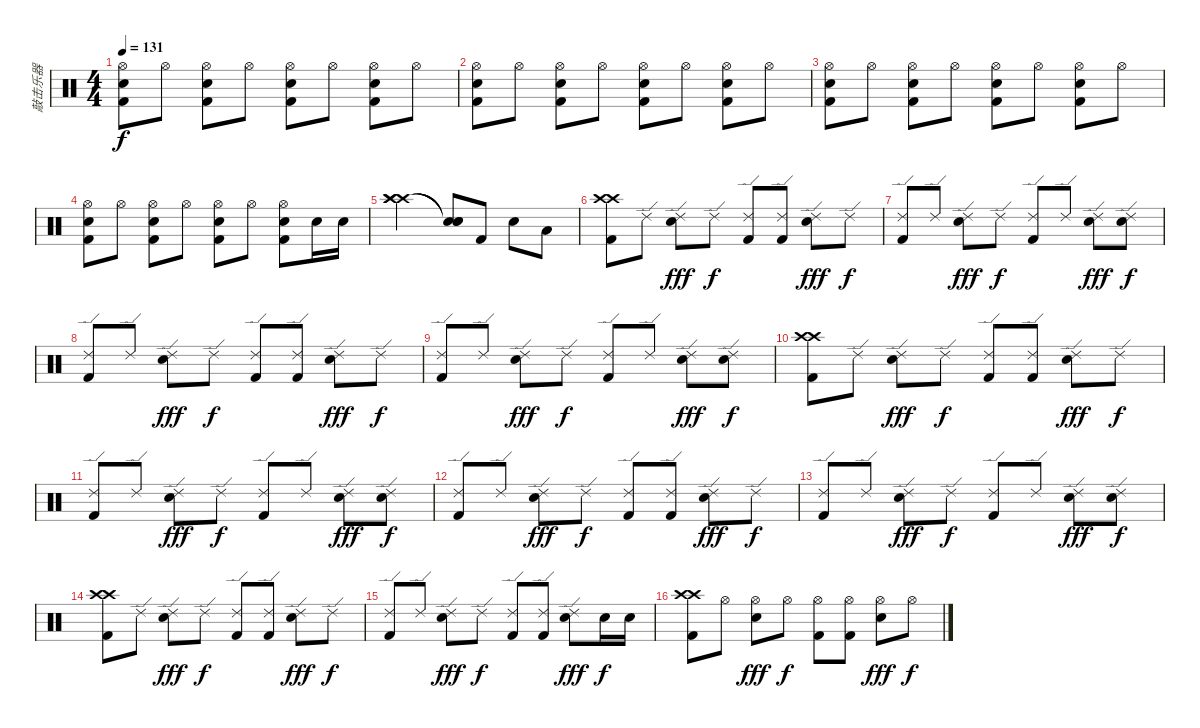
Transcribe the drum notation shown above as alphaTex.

\track ("敲击乐器" "敲击乐器") {instrument percussion}
\staff {score}
\articulation defaults
\ts (4 4)
\tempo 131
\clef neutral
\ks c
("Hi-Hat (open)" "Electric Snare (hit)" "Kick (hit) 2").8{dy f} "Hi-Hat (open)".8 ("Hi-Hat (open)" "Electric Snare (hit)" "Kick (hit) 2").8 "Hi-Hat (open)".8 ("Hi-Hat (open)" "Electric Snare (hit)" "Kick (hit) 2").8 "Hi-Hat (open)".8 ("Hi-Hat (open)" "Electric Snare (hit)" "Kick (hit) 2").8 "Hi-Hat (open)".8 |
("Hi-Hat (open)" "Electric Snare (hit)" "Kick (hit) 2").8 "Hi-Hat (open)".8 ("Hi-Hat (open)" "Electric Snare (hit)" "Kick (hit) 2").8 "Hi-Hat (open)".8 ("Hi-Hat (open)" "Electric Snare (hit)" "Kick (hit) 2").8 "Hi-Hat (open)".8 ("Hi-Hat (open)" "Electric Snare (hit)" "Kick (hit) 2").8 "Hi-Hat (open)".8 |
("Hi-Hat (open)" "Electric Snare (hit)" "Kick (hit) 2").8 "Hi-Hat (open)".8 ("Hi-Hat (open)" "Electric Snare (hit)" "Kick (hit) 2").8 "Hi-Hat (open)".8 ("Hi-Hat (open)" "Electric Snare (hit)" "Kick (hit) 2").8 "Hi-Hat (open)".8 ("Hi-Hat (open)" "Electric Snare (hit)" "Kick (hit) 2").8 "Hi-Hat (open)".8 |
("Hi-Hat (open)" "Electric Snare (hit)" "Kick (hit) 2").8 "Hi-Hat (open)".8 ("Hi-Hat (open)" "Electric Snare (hit)" "Kick (hit) 2").8 "Hi-Hat (open)".8 ("Hi-Hat (open)" "Electric Snare (hit)" "Kick (hit) 2").8 "Hi-Hat (open)".8 ("Hi-Hat (open)" "Electric Snare (hit)" "Kick (hit) 2").8 "Electric Snare (hit)".16 "Electric Snare (hit)".16 |
("Crash high (hit)" "Crash high (hit)" "Crash high (hit)").2 ("Snare (hit)"{t} "Snare (hit)"{t} "Snare (hit)"{t}).8 "Kick (hit) 2".8 "Electric Snare (hit)".8 "Low Tom (hit)".8 |
("Crash high (hit)" "Kick (hit) 2" "Crash high (hit)").8 "Ride (edge) 2".8 ("Ride (edge) 2" "Electric Snare (hit)").8{dy fff} "Ride (edge) 2".8{dy f} ("Ride (edge) 2" "Kick (hit) 2").8 ("Ride (edge) 2" "Kick (hit) 2").8 ("Ride (edge) 2" "Electric Snare (hit)").8{dy fff} "Ride (edge) 2".8{dy f} |
("Ride (edge) 2" "Kick (hit) 2").8 "Ride (edge) 2".8 ("Ride (edge) 2" "Electric Snare (hit)").8{dy fff} "Ride (edge) 2".8{dy f} ("Ride (edge) 2" "Kick (hit) 2").8 "Ride (edge) 2".8 ("Ride (edge) 2" "Electric Snare (hit)").8{dy fff} ("Ride (edge) 2" "Electric Snare (hit)").8{dy f} |
("Ride (edge) 2" "Kick (hit) 2").8 "Ride (edge) 2".8 ("Ride (edge) 2" "Electric Snare (hit)").8{dy fff} "Ride (edge) 2".8{dy f} ("Ride (edge) 2" "Kick (hit) 2").8 ("Ride (edge) 2" "Kick (hit) 2").8 ("Ride (edge) 2" "Electric Snare (hit)").8{dy fff} "Ride (edge) 2".8{dy f} |
("Ride (edge) 2" "Kick (hit) 2").8 "Ride (edge) 2".8 ("Ride (edge) 2" "Electric Snare (hit)").8{dy fff} "Ride (edge) 2".8{dy f} ("Ride (edge) 2" "Kick (hit) 2").8 "Ride (edge) 2".8 ("Ride (edge) 2" "Electric Snare (hit)").8{dy fff} ("Ride (edge) 2" "Electric Snare (hit)").8{dy f} |
("Crash high (hit)" "Kick (hit) 2" "Crash high (hit)").8 "Ride (edge) 2".8 ("Ride (edge) 2" "Electric Snare (hit)").8{dy fff} "Ride (edge) 2".8{dy f} ("Ride (edge) 2" "Kick (hit) 2").8 ("Ride (edge) 2" "Kick (hit) 2").8 ("Ride (edge) 2" "Electric Snare (hit)").8{dy fff} "Ride (edge) 2".8{dy f} |
("Ride (edge) 2" "Kick (hit) 2").8 "Ride (edge) 2".8 ("Ride (edge) 2" "Electric Snare (hit)").8{dy fff} "Ride (edge) 2".8{dy f} ("Ride (edge) 2" "Kick (hit) 2").8 "Ride (edge) 2".8 ("Ride (edge) 2" "Electric Snare (hit)").8{dy fff} ("Ride (edge) 2" "Electric Snare (hit)").8{dy f} |
("Ride (edge) 2" "Kick (hit) 2").8 "Ride (edge) 2".8 ("Ride (edge) 2" "Electric Snare (hit)").8{dy fff} "Ride (edge) 2".8{dy f} ("Ride (edge) 2" "Kick (hit) 2").8 ("Ride (edge) 2" "Kick (hit) 2").8 ("Ride (edge) 2" "Electric Snare (hit)").8{dy fff} "Ride (edge) 2".8{dy f} |
("Ride (edge) 2" "Kick (hit) 2").8 "Ride (edge) 2".8 ("Ride (edge) 2" "Electric Snare (hit)").8{dy fff} "Ride (edge) 2".8{dy f} ("Ride (edge) 2" "Kick (hit) 2").8 "Ride (edge) 2".8 ("Ride (edge) 2" "Electric Snare (hit)").8{dy fff} ("Ride (edge) 2" "Electric Snare (hit)").8{dy f} |
("Crash high (hit)" "Kick (hit) 2" "Crash high (hit)").8 "Ride (edge) 2".8 ("Ride (edge) 2" "Electric Snare (hit)").8{dy fff} "Ride (edge) 2".8{dy f} ("Ride (edge) 2" "Kick (hit) 2").8 ("Ride (edge) 2" "Kick (hit) 2").8 ("Ride (edge) 2" "Electric Snare (hit)").8{dy fff} "Ride (edge) 2".8{dy f} |
("Ride (edge) 2" "Kick (hit) 2").8 "Ride (edge) 2".8 ("Ride (edge) 2" "Electric Snare (hit)").8{dy fff} "Ride (edge) 2".8{dy f} ("Ride (edge) 2" "Kick (hit) 2").8 ("Ride (edge) 2" "Kick (hit) 2").8 ("Ride (edge) 2" "Electric Snare (hit)").8{dy fff} "Electric Snare (hit)".16{dy f} "Electric Snare (hit)".16 |
("Crash high (hit)" "Kick (hit) 2" "Crash high (hit)").8 "Hi-Hat (open)".8 ("Hi-Hat (open)" "Electric Snare (hit)").8{dy fff} "Hi-Hat (open)".8{dy f} ("Hi-Hat (open)" "Kick (hit) 2").8 ("Hi-Hat (open)" "Kick (hit) 2").8 ("Hi-Hat (open)" "Electric Snare (hit)").8{dy fff} "Hi-Hat (open)".8{dy f}
